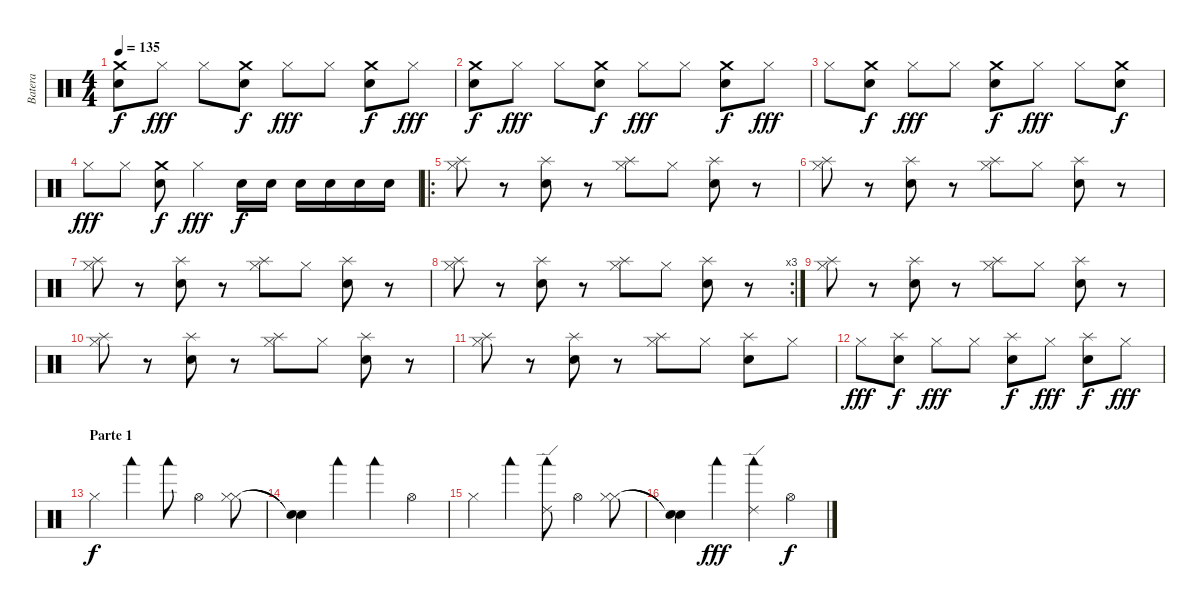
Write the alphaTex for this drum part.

\track ("Batera" "Batera") {instrument percussion}
\staff {score}
\articulation defaults
\ts (4 4)
\tempo 135
\clef neutral
\ks c
("Crash medium (hit)" "Electric Snare (hit)").8{dy f} "Hi-Hat (closed)".8{dy fff} "Hi-Hat (closed)".8 ("Crash medium (hit)" "Electric Snare (hit)").8{dy f} "Hi-Hat (closed)".8{dy fff} "Hi-Hat (closed)".8 ("Crash medium (hit)" "Electric Snare (hit)").8{dy f} "Hi-Hat (closed)".8{dy fff} |
("Crash medium (hit)" "Electric Snare (hit)").8{dy f} "Hi-Hat (closed)".8{dy fff} "Hi-Hat (closed)".8 ("Crash medium (hit)" "Electric Snare (hit)").8{dy f} "Hi-Hat (closed)".8{dy fff} "Hi-Hat (closed)".8 ("Crash medium (hit)" "Electric Snare (hit)").8{dy f} "Hi-Hat (closed)".8{dy fff} |
"Hi-Hat (closed)".8 ("Crash medium (hit)" "Electric Snare (hit)").8{dy f} "Hi-Hat (closed)".8{dy fff} "Hi-Hat (closed)".8 ("Crash medium (hit)" "Electric Snare (hit)").8{dy f} "Hi-Hat (closed)".8{dy fff} "Hi-Hat (closed)".8 ("Crash medium (hit)" "Electric Snare (hit)").8{dy f} |
"Hi-Hat (closed)".8{dy fff} "Hi-Hat (closed)".8 ("Crash medium (hit)" "Electric Snare (hit)").8{dy f} "Hi-Hat (closed)".4{dy fff} "Electric Snare (hit)".16{dy f} "Electric Snare (hit)".16 "Electric Snare (hit)".16 "Electric Snare (hit)".16 "Electric Snare (hit)".16 "Electric Snare (hit)".16 |
\ro
("Splash (hit)" "Hi-Hat (closed)").8 r.8 ("Splash (hit)" "Electric Snare (hit)").8 r.8 ("Splash (hit)" "Hi-Hat (closed)").8 "Hi-Hat (closed)".8 ("Splash (hit)" "Electric Snare (hit)").8 r.8 |
("Splash (hit)" "Hi-Hat (closed)").8 r.8 ("Splash (hit)" "Electric Snare (hit)").8 r.8 ("Splash (hit)" "Hi-Hat (closed)").8 "Hi-Hat (closed)".8 ("Splash (hit)" "Electric Snare (hit)").8 r.8 |
("Splash (hit)" "Hi-Hat (closed)").8 r.8 ("Splash (hit)" "Electric Snare (hit)").8 r.8 ("Splash (hit)" "Hi-Hat (closed)").8 "Hi-Hat (closed)".8 ("Splash (hit)" "Electric Snare (hit)").8 r.8 |
\rc 3
("Splash (hit)" "Hi-Hat (closed)").8 r.8 ("Splash (hit)" "Electric Snare (hit)").8 r.8 ("Splash (hit)" "Hi-Hat (closed)").8 "Hi-Hat (closed)".8 ("Splash (hit)" "Electric Snare (hit)").8 r.8 |
("Splash (hit)" "Hi-Hat (closed)").8 r.8 ("Splash (hit)" "Electric Snare (hit)").8 r.8 ("Splash (hit)" "Hi-Hat (closed)").8 "Hi-Hat (closed)".8 ("Splash (hit)" "Electric Snare (hit)").8 r.8 |
("Splash (hit)" "Hi-Hat (closed)").8 r.8 ("Splash (hit)" "Electric Snare (hit)").8 r.8 ("Splash (hit)" "Hi-Hat (closed)").8 "Hi-Hat (closed)".8 ("Splash (hit)" "Electric Snare (hit)").8 r.8 |
("Splash (hit)" "Hi-Hat (closed)").8 r.8 ("Splash (hit)" "Electric Snare (hit)").8 r.8 ("Splash (hit)" "Hi-Hat (closed)").8 "Hi-Hat (closed)".8 ("Splash (hit)" "Electric Snare (hit)").8 "Hi-Hat (closed)".8 |
"Hi-Hat (closed)".8{dy fff} ("Splash (hit)" "Electric Snare (hit)").8{dy f} "Hi-Hat (closed)".8{dy fff} "Hi-Hat (closed)".8 ("Splash (hit)" "Electric Snare (hit)").8{dy f} "Hi-Hat (closed)".8{dy fff} ("Splash (hit)" "Electric Snare (hit)").8{dy f} "Hi-Hat (closed)".8{dy fff} |
\section ("" "Parte 1")
"Hi-Hat (closed)".4{dy f} "Woodblock low (hit)".4 "Woodblock low (hit)".8 "Hi-Hat (open)".4 ("Hi-Hat (closed)" "Hi-Hat (closed)").8 |
("Snare (hit)"{t} "Snare (hit)"{t}).4 "Woodblock low (hit)".4 "Woodblock low (hit)".4 "Hi-Hat (open)".4 |
"Hi-Hat (closed)".4 "Woodblock low (hit)".4 ("Ride (edge) 2" "Woodblock low (hit)").8 "Hi-Hat (open)".4 ("Hi-Hat (closed)" "Hi-Hat (closed)").8 |
("Snare (hit)"{t} "Snare (hit)"{t}).4 "Woodblock low (hit)".4{dy fff} ("Ride (edge) 2" "Woodblock low (hit)").4 "Hi-Hat (open)".4{dy f}
